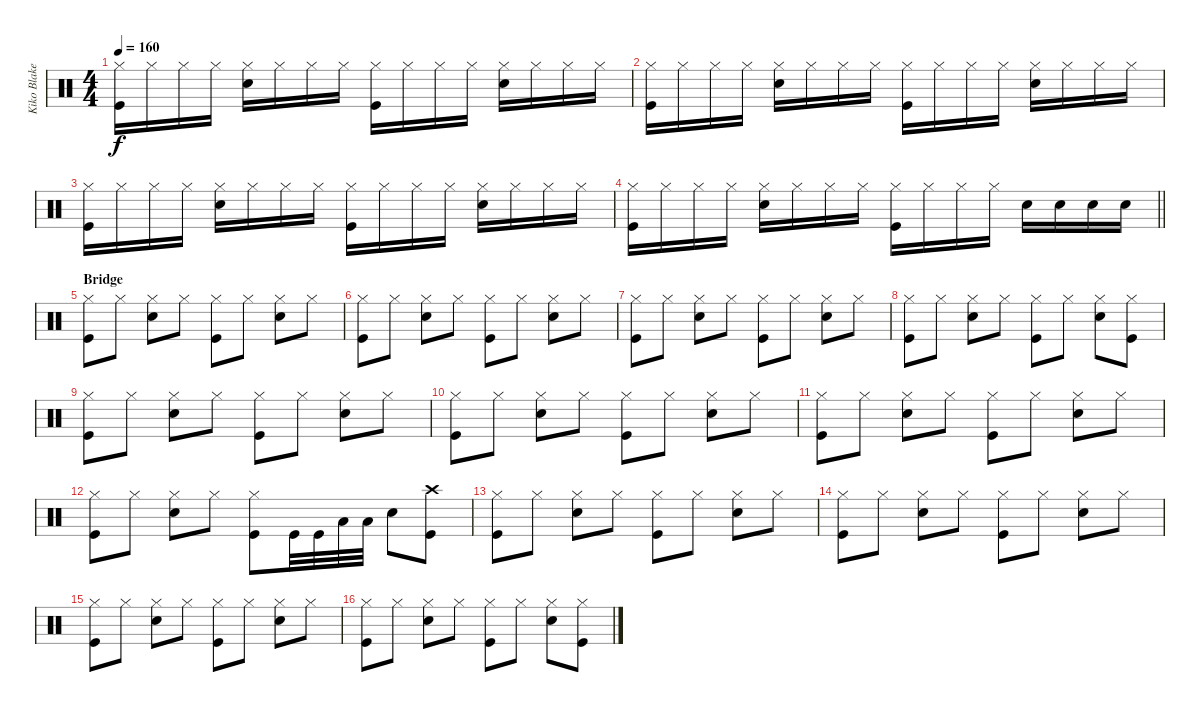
\track ("Kiko Blake" "Kiko Blake") {instrument percussion}
\staff {score}
\articulation defaults
\ts (4 4)
\tempo 160
\clef neutral
\ks c
("Hi-Hat (closed)" "Kick (hit)").16{dy f} "Hi-Hat (closed)".16 "Hi-Hat (closed)".16 "Hi-Hat (closed)".16 ("Hi-Hat (closed)" "Snare (hit) 2").16 "Hi-Hat (closed)".16 "Hi-Hat (closed)".16 "Hi-Hat (closed)".16 ("Hi-Hat (closed)" "Kick (hit)").16 "Hi-Hat (closed)".16 "Hi-Hat (closed)".16 "Hi-Hat (closed)".16 ("Hi-Hat (closed)" "Snare (hit) 2").16 "Hi-Hat (closed)".16 "Hi-Hat (closed)".16 "Hi-Hat (closed)".16 |
("Hi-Hat (closed)" "Kick (hit)").16 "Hi-Hat (closed)".16 "Hi-Hat (closed)".16 "Hi-Hat (closed)".16 ("Hi-Hat (closed)" "Snare (hit) 2").16 "Hi-Hat (closed)".16 "Hi-Hat (closed)".16 "Hi-Hat (closed)".16 ("Hi-Hat (closed)" "Kick (hit)").16 "Hi-Hat (closed)".16 "Hi-Hat (closed)".16 "Hi-Hat (closed)".16 ("Hi-Hat (closed)" "Snare (hit) 2").16 "Hi-Hat (closed)".16 "Hi-Hat (closed)".16 "Hi-Hat (closed)".16 |
("Hi-Hat (closed)" "Kick (hit)").16 "Hi-Hat (closed)".16 "Hi-Hat (closed)".16 "Hi-Hat (closed)".16 ("Hi-Hat (closed)" "Snare (hit) 2").16 "Hi-Hat (closed)".16 "Hi-Hat (closed)".16 "Hi-Hat (closed)".16 ("Hi-Hat (closed)" "Kick (hit)").16 "Hi-Hat (closed)".16 "Hi-Hat (closed)".16 "Hi-Hat (closed)".16 ("Hi-Hat (closed)" "Snare (hit) 2").16 "Hi-Hat (closed)".16 "Hi-Hat (closed)".16 "Hi-Hat (closed)".16 |
\barLineRight lightlight
("Hi-Hat (closed)" "Kick (hit)").16 "Hi-Hat (closed)".16 "Hi-Hat (closed)".16 "Hi-Hat (closed)".16 ("Hi-Hat (closed)" "Snare (hit) 2").16 "Hi-Hat (closed)".16 "Hi-Hat (closed)".16 "Hi-Hat (closed)".16 ("Hi-Hat (closed)" "Kick (hit)").16 "Hi-Hat (closed)".16 "Hi-Hat (closed)".16 "Hi-Hat (closed)".16 "Snare (hit) 2".16 "Snare (hit) 2".16 "Snare (hit) 2".16 "Snare (hit) 2".16 |
\section ("" "Bridge")
("Hi-Hat (closed)" "Kick (hit)").8 "Hi-Hat (closed)".8 ("Hi-Hat (closed)" "Snare (hit) 2").8 "Hi-Hat (closed)".8 ("Hi-Hat (closed)" "Kick (hit)").8 "Hi-Hat (closed)".8 ("Hi-Hat (closed)" "Snare (hit) 2").8 "Hi-Hat (closed)".8 |
("Hi-Hat (closed)" "Kick (hit)").8 "Hi-Hat (closed)".8 ("Hi-Hat (closed)" "Snare (hit) 2").8 "Hi-Hat (closed)".8 ("Hi-Hat (closed)" "Kick (hit)").8 "Hi-Hat (closed)".8 ("Hi-Hat (closed)" "Snare (hit) 2").8 "Hi-Hat (closed)".8 |
("Hi-Hat (closed)" "Kick (hit)").8 "Hi-Hat (closed)".8 ("Hi-Hat (closed)" "Snare (hit) 2").8 "Hi-Hat (closed)".8 ("Hi-Hat (closed)" "Kick (hit)").8 "Hi-Hat (closed)".8 ("Hi-Hat (closed)" "Snare (hit) 2").8 "Hi-Hat (closed)".8 |
("Hi-Hat (closed)" "Kick (hit)").8 "Hi-Hat (closed)".8 ("Hi-Hat (closed)" "Snare (hit) 2").8 "Hi-Hat (closed)".8 ("Hi-Hat (closed)" "Kick (hit)").8 "Hi-Hat (closed)".8 ("Hi-Hat (closed)" "Snare (hit) 2").8 ("Hi-Hat (closed)" "Kick (hit)").8 |
("Hi-Hat (closed)" "Kick (hit)").8 "Hi-Hat (closed)".8 ("Hi-Hat (closed)" "Snare (hit) 2").8 "Hi-Hat (closed)".8 ("Hi-Hat (closed)" "Kick (hit)").8 "Hi-Hat (closed)".8 ("Hi-Hat (closed)" "Snare (hit) 2").8 "Hi-Hat (closed)".8 |
("Hi-Hat (closed)" "Kick (hit)").8 "Hi-Hat (closed)".8 ("Hi-Hat (closed)" "Snare (hit) 2").8 "Hi-Hat (closed)".8 ("Hi-Hat (closed)" "Kick (hit)").8 "Hi-Hat (closed)".8 ("Hi-Hat (closed)" "Snare (hit) 2").8 "Hi-Hat (closed)".8 |
("Hi-Hat (closed)" "Kick (hit)").8 "Hi-Hat (closed)".8 ("Hi-Hat (closed)" "Snare (hit) 2").8 "Hi-Hat (closed)".8 ("Hi-Hat (closed)" "Kick (hit)").8 "Hi-Hat (closed)".8 ("Hi-Hat (closed)" "Snare (hit) 2").8 "Hi-Hat (closed)".8 |
("Hi-Hat (closed)" "Kick (hit)").8 "Hi-Hat (closed)".8 ("Hi-Hat (closed)" "Snare (hit) 2").8 "Hi-Hat (closed)".8 ("Hi-Hat (closed)" "Kick (hit)").8 "Kick (hit)".32 "Kick (hit)".32 "Low Tom (hit)".32 "Low Tom (hit)".32 "Snare (hit) 2".8 ("Crash high (hit)" "Kick (hit)").8 |
("Hi-Hat (closed)" "Kick (hit)").8 "Hi-Hat (closed)".8 ("Hi-Hat (closed)" "Snare (hit) 2").8 "Hi-Hat (closed)".8 ("Hi-Hat (closed)" "Kick (hit)").8 "Hi-Hat (closed)".8 ("Hi-Hat (closed)" "Snare (hit) 2").8 "Hi-Hat (closed)".8 |
("Hi-Hat (closed)" "Kick (hit)").8 "Hi-Hat (closed)".8 ("Hi-Hat (closed)" "Snare (hit) 2").8 "Hi-Hat (closed)".8 ("Hi-Hat (closed)" "Kick (hit)").8 "Hi-Hat (closed)".8 ("Hi-Hat (closed)" "Snare (hit) 2").8 "Hi-Hat (closed)".8 |
("Hi-Hat (closed)" "Kick (hit)").8 "Hi-Hat (closed)".8 ("Hi-Hat (closed)" "Snare (hit) 2").8 "Hi-Hat (closed)".8 ("Hi-Hat (closed)" "Kick (hit)").8 "Hi-Hat (closed)".8 ("Hi-Hat (closed)" "Snare (hit) 2").8 "Hi-Hat (closed)".8 |
("Hi-Hat (closed)" "Kick (hit)").8 "Hi-Hat (closed)".8 ("Hi-Hat (closed)" "Snare (hit) 2").8 "Hi-Hat (closed)".8 ("Hi-Hat (closed)" "Kick (hit)").8 "Hi-Hat (closed)".8 ("Hi-Hat (closed)" "Snare (hit) 2").8 ("Hi-Hat (closed)" "Kick (hit)").8
